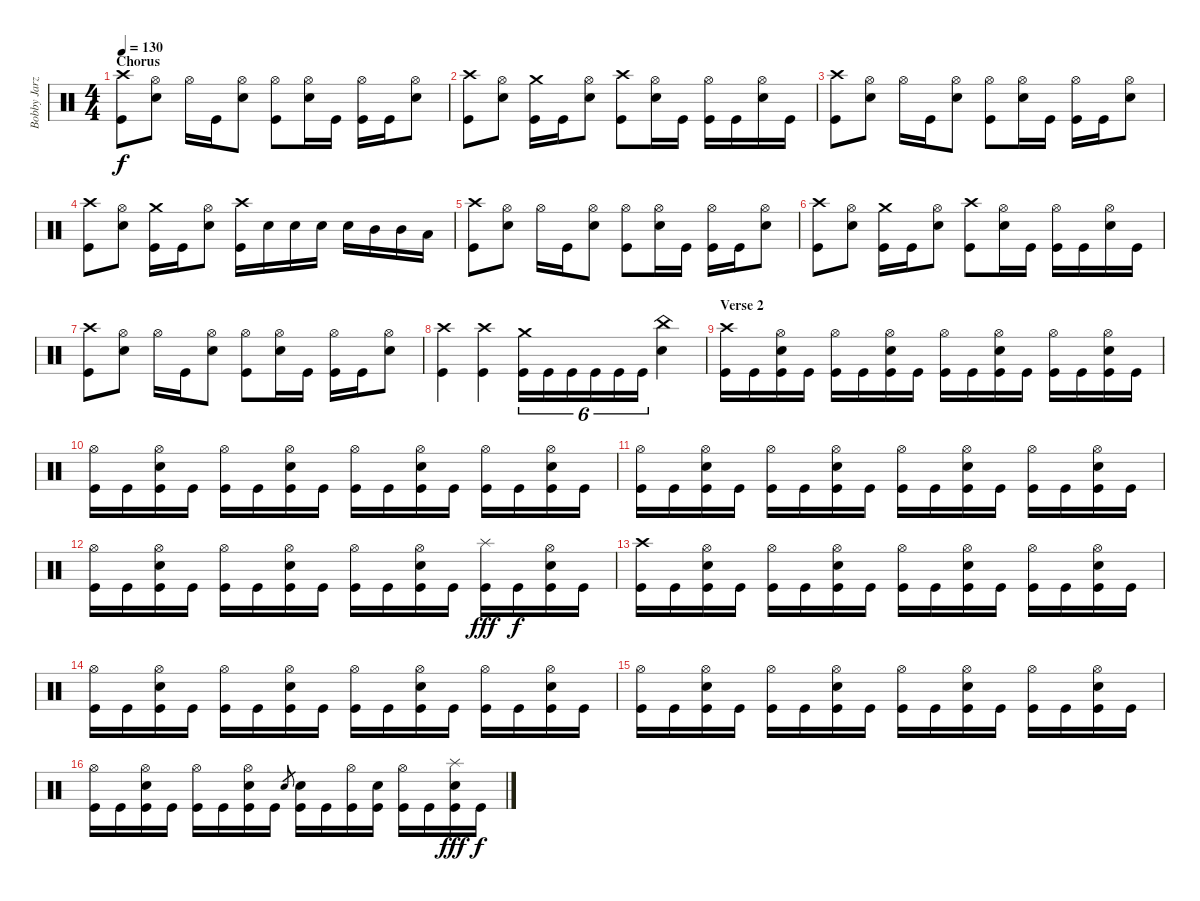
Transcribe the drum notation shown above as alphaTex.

\track ("Bobby Jarzombek" "Bobby Jarz") {instrument percussion}
\staff {score}
\articulation defaults
\ts (4 4)
\section ("" "Chorus")
\tempo 130
\clef neutral
\ks c
("Crash high (hit)" "Kick (hit)").8{dy f} ("Hi-Hat (open)" "Electric Snare (hit)").8 "Hi-Hat (open)".16 "Kick (hit)".16 ("Hi-Hat (open)" "Electric Snare (hit)").8 ("Hi-Hat (open)" "Kick (hit)").8 ("Hi-Hat (open)" "Electric Snare (hit)").16 "Kick (hit)".16 ("Hi-Hat (open)" "Kick (hit)").16 "Kick (hit)".16 ("Hi-Hat (open)" "Electric Snare (hit)").8 |
("Crash high (hit)" "Kick (hit)").8 ("Hi-Hat (open)" "Electric Snare (hit)").8 ("Crash medium (hit)" "Kick (hit)").16 "Kick (hit)".16 ("Hi-Hat (open)" "Electric Snare (hit)").8 ("Crash high (hit)" "Kick (hit)").8 ("Hi-Hat (open)" "Electric Snare (hit)").16 "Kick (hit)".16 ("Hi-Hat (open)" "Kick (hit)").16 "Kick (hit)".16 ("Hi-Hat (open)" "Electric Snare (hit)").16 "Kick (hit)".16 |
("Crash high (hit)" "Kick (hit)").8 ("Hi-Hat (open)" "Electric Snare (hit)").8 "Hi-Hat (open)".16 "Kick (hit)".16 ("Hi-Hat (open)" "Electric Snare (hit)").8 ("Hi-Hat (open)" "Kick (hit)").8 ("Hi-Hat (open)" "Electric Snare (hit)").16 "Kick (hit)".16 ("Hi-Hat (open)" "Kick (hit)").16 "Kick (hit)".16 ("Hi-Hat (open)" "Electric Snare (hit)").8 |
("Crash high (hit)" "Kick (hit)").8 ("Hi-Hat (open)" "Electric Snare (hit)").8 ("Crash medium (hit)" "Kick (hit)").16 "Kick (hit)".16 ("Hi-Hat (open)" "Electric Snare (hit)").8 ("Crash high (hit)" "Kick (hit)").16 "Electric Snare (hit)".16 "Electric Snare (hit)".16 "Electric Snare (hit)".16 "Electric Snare (hit)".16 "Mid Tom (hit)".16 "Mid Tom (hit)".16 "Low Tom (hit)".16 |
("Crash high (hit)" "Kick (hit)").8 ("Hi-Hat (open)" "Electric Snare (hit)").8 "Hi-Hat (open)".16 "Kick (hit)".16 ("Hi-Hat (open)" "Electric Snare (hit)").8 ("Hi-Hat (open)" "Kick (hit)").8 ("Hi-Hat (open)" "Electric Snare (hit)").16 "Kick (hit)".16 ("Hi-Hat (open)" "Kick (hit)").16 "Kick (hit)".16 ("Hi-Hat (open)" "Electric Snare (hit)").8 |
("Crash high (hit)" "Kick (hit)").8 ("Hi-Hat (open)" "Electric Snare (hit)").8 ("Crash medium (hit)" "Kick (hit)").16 "Kick (hit)".16 ("Hi-Hat (open)" "Electric Snare (hit)").8 ("Crash high (hit)" "Kick (hit)").8 ("Hi-Hat (open)" "Electric Snare (hit)").16 "Kick (hit)".16 ("Hi-Hat (open)" "Kick (hit)").16 "Kick (hit)".16 ("Hi-Hat (open)" "Electric Snare (hit)").16 "Kick (hit)".16 |
("Crash high (hit)" "Kick (hit)").8 ("Hi-Hat (open)" "Electric Snare (hit)").8 "Hi-Hat (open)".16 "Kick (hit)".16 ("Hi-Hat (open)" "Electric Snare (hit)").8 ("Hi-Hat (open)" "Kick (hit)").8 ("Hi-Hat (open)" "Electric Snare (hit)").16 "Kick (hit)".16 ("Hi-Hat (open)" "Kick (hit)").16 "Kick (hit)".16 ("Hi-Hat (open)" "Electric Snare (hit)").8 |
("Crash high (hit)" "Kick (hit)").4 ("Crash high (hit)" "Kick (hit)").4 ("Crash medium (hit)" "Kick (hit)").16{tu (6 4)} "Kick (hit)".16{tu (6 4)} "Kick (hit)".16{tu (6 4)} "Kick (hit)".16{tu (6 4)} "Kick (hit)".16{tu (6 4)} "Kick (hit)".16{tu (6 4)} ("China (hit)" "Electric Snare (hit)").4 |
\section ("" "Verse 2")
("Crash high (hit)" "Kick (hit)").16 "Kick (hit)".16 ("Hi-Hat (open)" "Electric Snare (hit)" "Kick (hit)").16 "Kick (hit)".16 ("Hi-Hat (open)" "Kick (hit)").16 "Kick (hit)".16 ("Hi-Hat (open)" "Electric Snare (hit)" "Kick (hit)").16 "Kick (hit)".16 ("Hi-Hat (open)" "Kick (hit)").16 "Kick (hit)".16 ("Hi-Hat (open)" "Electric Snare (hit)" "Kick (hit)").16 "Kick (hit)".16 ("Hi-Hat (open)" "Kick (hit)").16 "Kick (hit)".16 ("Hi-Hat (open)" "Electric Snare (hit)" "Kick (hit)").16 "Kick (hit)".16 |
("Hi-Hat (open)" "Kick (hit)").16 "Kick (hit)".16 ("Hi-Hat (open)" "Electric Snare (hit)" "Kick (hit)").16 "Kick (hit)".16 ("Hi-Hat (open)" "Kick (hit)").16 "Kick (hit)".16 ("Hi-Hat (open)" "Electric Snare (hit)" "Kick (hit)").16 "Kick (hit)".16 ("Hi-Hat (open)" "Kick (hit)").16 "Kick (hit)".16 ("Hi-Hat (open)" "Electric Snare (hit)" "Kick (hit)").16 "Kick (hit)".16 ("Hi-Hat (open)" "Kick (hit)").16 "Kick (hit)".16 ("Hi-Hat (open)" "Electric Snare (hit)" "Kick (hit)").16 "Kick (hit)".16 |
("Hi-Hat (open)" "Kick (hit)").16 "Kick (hit)".16 ("Hi-Hat (open)" "Electric Snare (hit)" "Kick (hit)").16 "Kick (hit)".16 ("Hi-Hat (open)" "Kick (hit)").16 "Kick (hit)".16 ("Hi-Hat (open)" "Electric Snare (hit)" "Kick (hit)").16 "Kick (hit)".16 ("Hi-Hat (open)" "Kick (hit)").16 "Kick (hit)".16 ("Hi-Hat (open)" "Electric Snare (hit)" "Kick (hit)").16 "Kick (hit)".16 ("Hi-Hat (open)" "Kick (hit)").16 "Kick (hit)".16 ("Hi-Hat (open)" "Electric Snare (hit)" "Kick (hit)").16 "Kick (hit)".16 |
("Hi-Hat (open)" "Kick (hit)").16 "Kick (hit)".16 ("Hi-Hat (open)" "Electric Snare (hit)" "Kick (hit)").16 "Kick (hit)".16 ("Hi-Hat (open)" "Kick (hit)").16 "Kick (hit)".16 ("Hi-Hat (open)" "Electric Snare (hit)" "Kick (hit)").16 "Kick (hit)".16 ("Hi-Hat (open)" "Kick (hit)").16 "Kick (hit)".16 ("Hi-Hat (open)" "Electric Snare (hit)" "Kick (hit)").16 "Kick (hit)".16 ("Splash (hit)" "Kick (hit)").16{dy fff} "Kick (hit)".16{dy f} ("Hi-Hat (open)" "Electric Snare (hit)" "Kick (hit)").16 "Kick (hit)".16 |
("Crash high (hit)" "Kick (hit)").16 "Kick (hit)".16 ("Hi-Hat (open)" "Electric Snare (hit)" "Kick (hit)").16 "Kick (hit)".16 ("Hi-Hat (open)" "Kick (hit)").16 "Kick (hit)".16 ("Hi-Hat (open)" "Electric Snare (hit)" "Kick (hit)").16 "Kick (hit)".16 ("Hi-Hat (open)" "Kick (hit)").16 "Kick (hit)".16 ("Hi-Hat (open)" "Electric Snare (hit)" "Kick (hit)").16 "Kick (hit)".16 ("Hi-Hat (open)" "Kick (hit)").16 "Kick (hit)".16 ("Hi-Hat (open)" "Electric Snare (hit)" "Kick (hit)").16 "Kick (hit)".16 |
("Hi-Hat (open)" "Kick (hit)").16 "Kick (hit)".16 ("Hi-Hat (open)" "Electric Snare (hit)" "Kick (hit)").16 "Kick (hit)".16 ("Hi-Hat (open)" "Kick (hit)").16 "Kick (hit)".16 ("Hi-Hat (open)" "Electric Snare (hit)" "Kick (hit)").16 "Kick (hit)".16 ("Hi-Hat (open)" "Kick (hit)").16 "Kick (hit)".16 ("Hi-Hat (open)" "Electric Snare (hit)" "Kick (hit)").16 "Kick (hit)".16 ("Hi-Hat (open)" "Kick (hit)").16 "Kick (hit)".16 ("Hi-Hat (open)" "Electric Snare (hit)" "Kick (hit)").16 "Kick (hit)".16 |
("Hi-Hat (open)" "Kick (hit)").16 "Kick (hit)".16 ("Hi-Hat (open)" "Electric Snare (hit)" "Kick (hit)").16 "Kick (hit)".16 ("Hi-Hat (open)" "Kick (hit)").16 "Kick (hit)".16 ("Hi-Hat (open)" "Electric Snare (hit)" "Kick (hit)").16 "Kick (hit)".16 ("Hi-Hat (open)" "Kick (hit)").16 "Kick (hit)".16 ("Hi-Hat (open)" "Electric Snare (hit)" "Kick (hit)").16 "Kick (hit)".16 ("Hi-Hat (open)" "Kick (hit)").16 "Kick (hit)".16 ("Hi-Hat (open)" "Electric Snare (hit)" "Kick (hit)").16 "Kick (hit)".16 |
("Hi-Hat (open)" "Kick (hit)").16 "Kick (hit)".16 ("Hi-Hat (open)" "Electric Snare (hit)" "Kick (hit)").16 "Kick (hit)".16 ("Hi-Hat (open)" "Kick (hit)").16 "Kick (hit)".16 ("Hi-Hat (open)" "Electric Snare (hit)" "Kick (hit)").16 "Kick (hit)".16 "Electric Snare (hit)".8{gr} ("Electric Snare (hit)" "Kick (hit)").16 "Kick (hit)".16 ("Hi-Hat (open)" "Kick (hit)").16 ("Electric Snare (hit)" "Kick (hit)").16 ("Hi-Hat (open)" "Kick (hit)").16 "Kick (hit)".16 ("Splash (hit)" "Electric Snare (hit)" "Kick (hit)").16{dy fff} "Kick (hit)".16{dy f}
